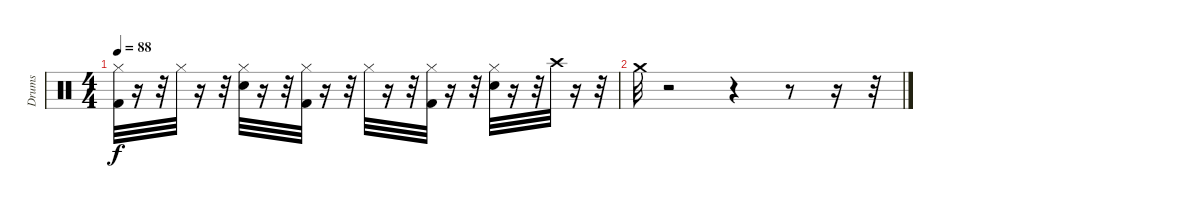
\track ("Drums" "Drums") {instrument percussion}
\staff {score}
\articulation defaults
\ts (4 4)
\tempo 88
\clef neutral
\ks c
("Hi-Hat (closed)" "Kick (hit) 2").32{dy f} r.16 r.32 "Hi-Hat (closed)".32 r.16 r.32 ("Hi-Hat (closed)" "Electric Snare (hit)").32 r.16 r.32 ("Kick (hit) 2" "Hi-Hat (closed)").32 r.16 r.32 "Hi-Hat (closed)".32 r.16 r.32 ("Kick (hit) 2" "Hi-Hat (closed)").32 r.16 r.32 ("Hi-Hat (closed)" "Electric Snare (hit)").32 r.16 r.32 "Crash high (hit)".32 r.16 r.32 |
"Crash medium (hit)".32 r.2 r.4 r.8 r.16 r.32
